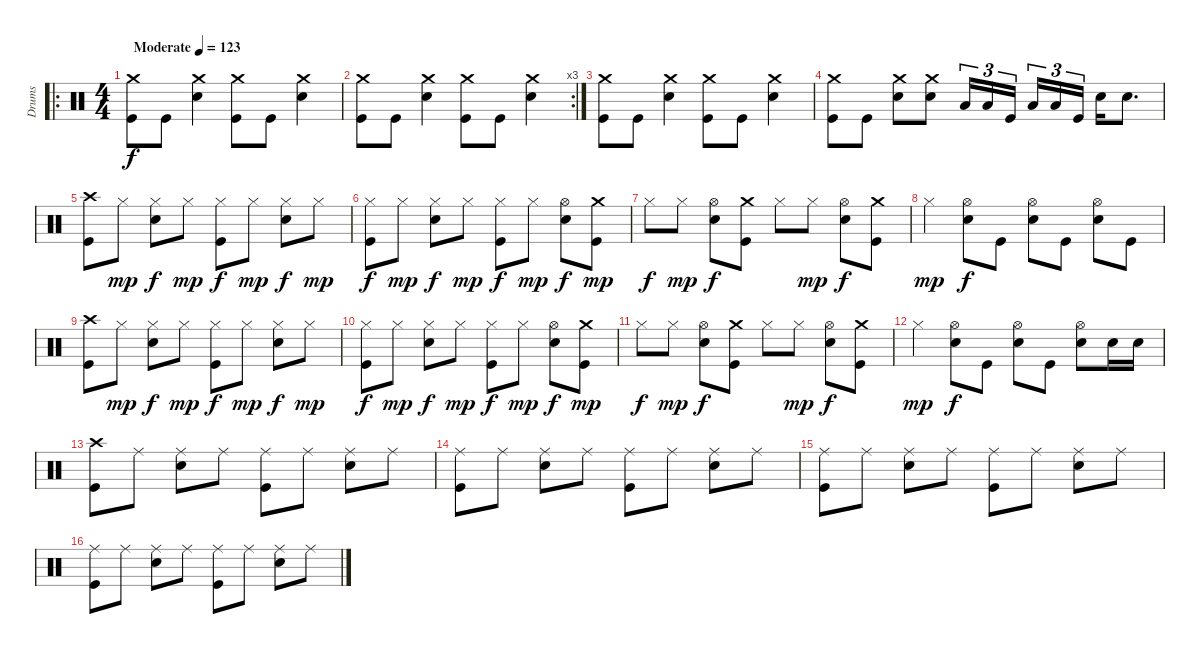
\track ("Drums" "Drums") {instrument percussion}
\staff {score}
\articulation defaults
\ro
\ts (4 4)
\tempo (123 "Moderate")
\clef neutral
\ks c
("Crash medium (hit)" "Kick (hit)").8{dy f} "Kick (hit)".8 ("Crash medium (hit)" "Snare (hit) 2").4 ("Crash medium (hit)" "Kick (hit)").8 "Kick (hit)".8 ("Crash medium (hit)" "Snare (hit) 2").4 |
\rc 3
("Crash medium (hit)" "Kick (hit)").8 "Kick (hit)".8 ("Crash medium (hit)" "Snare (hit) 2").4 ("Crash medium (hit)" "Kick (hit)").8 "Kick (hit)".8 ("Crash medium (hit)" "Snare (hit) 2").4 |
("Crash medium (hit)" "Kick (hit)").8 "Kick (hit)".8 ("Crash medium (hit)" "Snare (hit) 2").4 ("Crash medium (hit)" "Kick (hit)").8 "Kick (hit)".8 ("Crash medium (hit)" "Snare (hit) 2").4 |
("Crash medium (hit)" "Kick (hit)").8 "Kick (hit)".8 ("Crash medium (hit)" "Snare (hit) 2").8 ("Crash medium (hit)" "Snare (hit) 2").8 "Low Tom (hit)".16{tu (3 2)} "Low Floor Tom (hit)".16{tu (3 2)} "Kick (hit)".16{tu (3 2) beam splitsecondary} "Low Tom (hit)".16{tu (3 2)} "Low Floor Tom (hit)".16{tu (3 2)} "Kick (hit)".16{tu (3 2)} "Snare (hit) 2".16 "Snare (hit) 2".8{d} |
("Crash high (hit)" "Kick (hit)").8 "Hi-Hat (closed)".8{dy mp} ("Hi-Hat (closed)" "Snare (hit) 2").8{dy f} "Hi-Hat (closed)".8{dy mp} ("Hi-Hat (closed)" "Kick (hit)").8{dy f} "Hi-Hat (closed)".8{dy mp} ("Hi-Hat (closed)" "Snare (hit) 2").8{dy f} "Hi-Hat (closed)".8{dy mp} |
("Hi-Hat (closed)" "Kick (hit)").8{dy f} "Hi-Hat (closed)".8{dy mp} ("Hi-Hat (closed)" "Snare (hit) 2").8{dy f} "Hi-Hat (closed)".8{dy mp} ("Hi-Hat (closed)" "Kick (hit)").8{dy f} "Hi-Hat (closed)".8{dy mp} ("Hi-Hat (open)" "Snare (hit) 2").8{dy f} ("Crash medium (hit)" "Kick (hit)").8{dy mp} |
"Hi-Hat (closed)".8{dy f} "Hi-Hat (closed)".8{dy mp} ("Hi-Hat (open)" "Snare (hit) 2").8{dy f} ("Crash medium (hit)" "Kick (hit)").8 "Hi-Hat (closed)".8 "Hi-Hat (closed)".8{dy mp} ("Hi-Hat (open)" "Snare (hit) 2").8{dy f} ("Crash medium (hit)" "Kick (hit)").8 |
"Hi-Hat (closed)".4{dy mp} ("Hi-Hat (open)" "Snare (hit) 2").8{dy f} "Kick (hit)".8 ("Hi-Hat (open)" "Snare (hit) 2").8 "Kick (hit)".8 ("Hi-Hat (open)" "Snare (hit) 2").8 "Kick (hit)".8 |
("Crash high (hit)" "Kick (hit)").8 "Hi-Hat (closed)".8{dy mp} ("Hi-Hat (closed)" "Snare (hit) 2").8{dy f} "Hi-Hat (closed)".8{dy mp} ("Hi-Hat (closed)" "Kick (hit)").8{dy f} "Hi-Hat (closed)".8{dy mp} ("Hi-Hat (closed)" "Snare (hit) 2").8{dy f} "Hi-Hat (closed)".8{dy mp} |
("Hi-Hat (closed)" "Kick (hit)").8{dy f} "Hi-Hat (closed)".8{dy mp} ("Hi-Hat (closed)" "Snare (hit) 2").8{dy f} "Hi-Hat (closed)".8{dy mp} ("Hi-Hat (closed)" "Kick (hit)").8{dy f} "Hi-Hat (closed)".8{dy mp} ("Hi-Hat (open)" "Snare (hit) 2").8{dy f} ("Crash medium (hit)" "Kick (hit)").8{dy mp} |
"Hi-Hat (closed)".8{dy f} "Hi-Hat (closed)".8{dy mp} ("Hi-Hat (open)" "Snare (hit) 2").8{dy f} ("Crash medium (hit)" "Kick (hit)").8 "Hi-Hat (closed)".8 "Hi-Hat (closed)".8{dy mp} ("Hi-Hat (open)" "Snare (hit) 2").8{dy f} ("Crash medium (hit)" "Kick (hit)").8 |
"Hi-Hat (closed)".4{dy mp} ("Hi-Hat (open)" "Snare (hit) 2").8{dy f} "Kick (hit)".8 ("Hi-Hat (open)" "Snare (hit) 2").8 "Kick (hit)".8 ("Hi-Hat (open)" "Snare (hit) 2").8 "Snare (hit) 2".16 "Snare (hit) 2".16 |
("Crash high (hit)" "Kick (hit)").8 "Ride (middle)".8 ("Ride (middle)" "Snare (hit) 2").8 "Ride (middle)".8 ("Ride (middle)" "Kick (hit)").8 "Ride (middle)".8 ("Ride (middle)" "Snare (hit) 2").8 "Ride (middle)".8 |
("Ride (middle)" "Kick (hit)").8 "Ride (middle)".8 ("Ride (middle)" "Snare (hit) 2").8 "Ride (middle)".8 ("Ride (middle)" "Kick (hit)").8 "Ride (middle)".8 ("Ride (middle)" "Snare (hit) 2").8 "Ride (middle)".8 |
("Ride (middle)" "Kick (hit)").8 "Ride (middle)".8 ("Ride (middle)" "Snare (hit) 2").8 "Ride (middle)".8 ("Ride (middle)" "Kick (hit)").8 "Ride (middle)".8 ("Ride (middle)" "Snare (hit) 2").8 "Ride (middle)".8 |
("Ride (middle)" "Kick (hit)").8 "Ride (middle)".8 ("Ride (middle)" "Snare (hit) 2").8 "Ride (middle)".8 ("Ride (middle)" "Kick (hit)").8 "Ride (middle)".8 ("Ride (middle)" "Snare (hit) 2").8 "Ride (middle)".8
